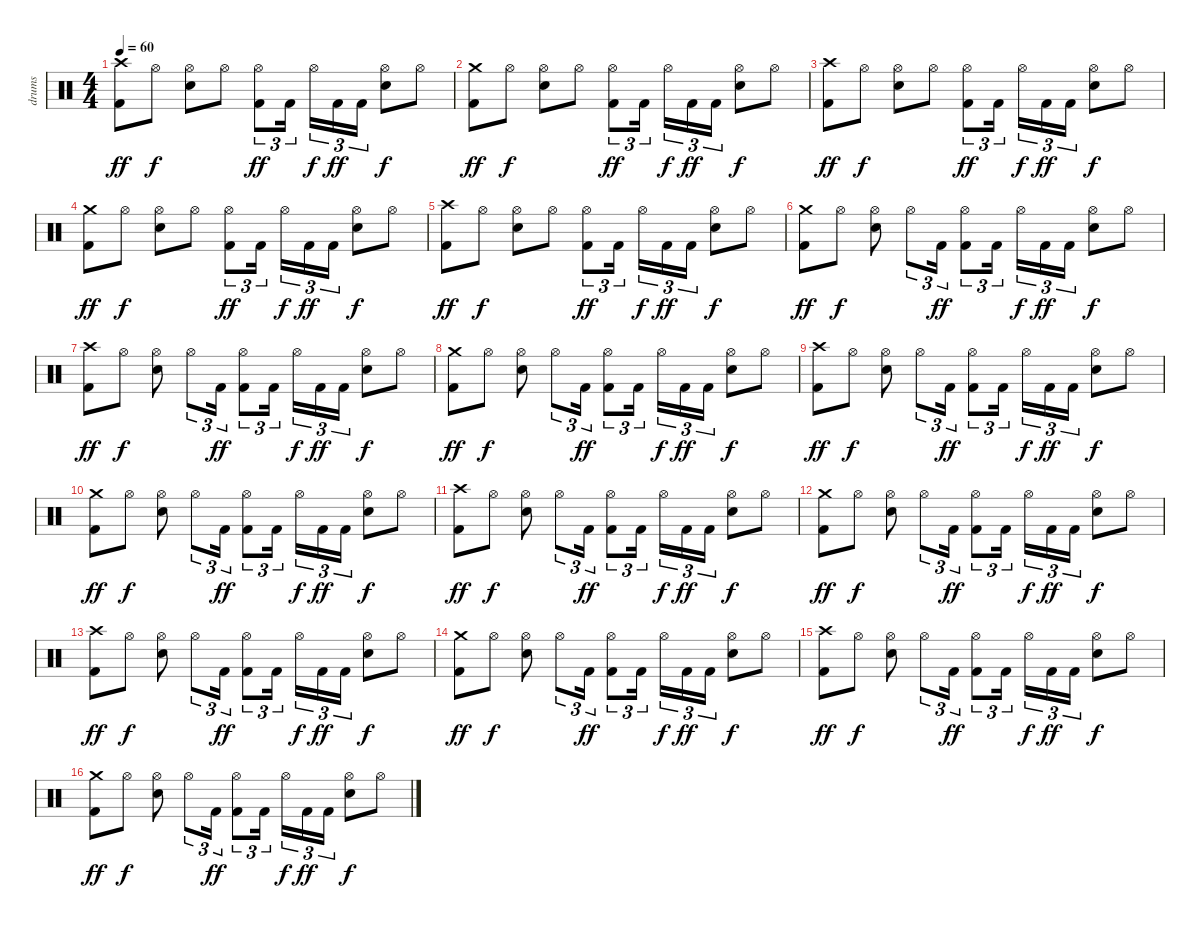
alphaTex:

\track ("drums" "drums") {instrument percussion}
\staff {score}
\articulation defaults
\ts (4 4)
\tempo 60
\clef neutral
\ks c
("Crash high (hit)" "Kick (hit) 2").8{dy ff} "Hi-Hat (open)".8{dy f} ("Hi-Hat (open)" "Electric Snare (hit)").8 "Hi-Hat (open)".8 ("Hi-Hat (open)" "Kick (hit) 2").8{tu (3 2) dy ff} "Kick (hit) 2".16{tu (3 2)} "Hi-Hat (open)".16{tu (3 2) dy f} "Kick (hit) 2".16{tu (3 2) dy ff} "Kick (hit) 2".16{tu (3 2)} ("Hi-Hat (open)" "Electric Snare (hit)").8{dy f} "Hi-Hat (open)".8 |
("Crash medium (hit)" "Kick (hit) 2").8{dy ff} "Hi-Hat (open)".8{dy f} ("Hi-Hat (open)" "Electric Snare (hit)").8 "Hi-Hat (open)".8 ("Hi-Hat (open)" "Kick (hit) 2").8{tu (3 2) dy ff} "Kick (hit) 2".16{tu (3 2)} "Hi-Hat (open)".16{tu (3 2) dy f} "Kick (hit) 2".16{tu (3 2) dy ff} "Kick (hit) 2".16{tu (3 2)} ("Hi-Hat (open)" "Electric Snare (hit)").8{dy f} "Hi-Hat (open)".8 |
("Crash high (hit)" "Kick (hit) 2").8{dy ff} "Hi-Hat (open)".8{dy f} ("Hi-Hat (open)" "Electric Snare (hit)").8 "Hi-Hat (open)".8 ("Hi-Hat (open)" "Kick (hit) 2").8{tu (3 2) dy ff} "Kick (hit) 2".16{tu (3 2)} "Hi-Hat (open)".16{tu (3 2) dy f} "Kick (hit) 2".16{tu (3 2) dy ff} "Kick (hit) 2".16{tu (3 2)} ("Hi-Hat (open)" "Electric Snare (hit)").8{dy f} "Hi-Hat (open)".8 |
("Crash medium (hit)" "Kick (hit) 2").8{dy ff} "Hi-Hat (open)".8{dy f} ("Hi-Hat (open)" "Electric Snare (hit)").8 "Hi-Hat (open)".8 ("Hi-Hat (open)" "Kick (hit) 2").8{tu (3 2) dy ff} "Kick (hit) 2".16{tu (3 2)} "Hi-Hat (open)".16{tu (3 2) dy f} "Kick (hit) 2".16{tu (3 2) dy ff} "Kick (hit) 2".16{tu (3 2)} ("Hi-Hat (open)" "Electric Snare (hit)").8{dy f} "Hi-Hat (open)".8 |
("Crash high (hit)" "Kick (hit) 2").8{dy ff} "Hi-Hat (open)".8{dy f} ("Hi-Hat (open)" "Electric Snare (hit)").8 "Hi-Hat (open)".8 ("Hi-Hat (open)" "Kick (hit) 2").8{tu (3 2) dy ff} "Kick (hit) 2".16{tu (3 2)} "Hi-Hat (open)".16{tu (3 2) dy f} "Kick (hit) 2".16{tu (3 2) dy ff} "Kick (hit) 2".16{tu (3 2)} ("Hi-Hat (open)" "Electric Snare (hit)").8{dy f} "Hi-Hat (open)".8 |
("Crash medium (hit)" "Kick (hit) 2").8{dy ff} "Hi-Hat (open)".8{dy f} ("Hi-Hat (open)" "Electric Snare (hit)").8 "Hi-Hat (open)".8{tu (3 2)} "Kick (hit) 2".16{tu (3 2) dy ff} ("Hi-Hat (open)" "Kick (hit) 2").8{tu (3 2)} "Kick (hit) 2".16{tu (3 2)} "Hi-Hat (open)".16{tu (3 2) dy f} "Kick (hit) 2".16{tu (3 2) dy ff} "Kick (hit) 2".16{tu (3 2)} ("Hi-Hat (open)" "Electric Snare (hit)").8{dy f} "Hi-Hat (open)".8 |
("Crash high (hit)" "Kick (hit) 2").8{dy ff} "Hi-Hat (open)".8{dy f} ("Hi-Hat (open)" "Electric Snare (hit)").8 "Hi-Hat (open)".8{tu (3 2)} "Kick (hit) 2".16{tu (3 2) dy ff} ("Hi-Hat (open)" "Kick (hit) 2").8{tu (3 2)} "Kick (hit) 2".16{tu (3 2)} "Hi-Hat (open)".16{tu (3 2) dy f} "Kick (hit) 2".16{tu (3 2) dy ff} "Kick (hit) 2".16{tu (3 2)} ("Hi-Hat (open)" "Electric Snare (hit)").8{dy f} "Hi-Hat (open)".8 |
("Crash medium (hit)" "Kick (hit) 2").8{dy ff} "Hi-Hat (open)".8{dy f} ("Hi-Hat (open)" "Electric Snare (hit)").8 "Hi-Hat (open)".8{tu (3 2)} "Kick (hit) 2".16{tu (3 2) dy ff} ("Hi-Hat (open)" "Kick (hit) 2").8{tu (3 2)} "Kick (hit) 2".16{tu (3 2)} "Hi-Hat (open)".16{tu (3 2) dy f} "Kick (hit) 2".16{tu (3 2) dy ff} "Kick (hit) 2".16{tu (3 2)} ("Hi-Hat (open)" "Electric Snare (hit)").8{dy f} "Hi-Hat (open)".8 |
("Crash high (hit)" "Kick (hit) 2").8{dy ff} "Hi-Hat (open)".8{dy f} ("Hi-Hat (open)" "Electric Snare (hit)").8 "Hi-Hat (open)".8{tu (3 2)} "Kick (hit) 2".16{tu (3 2) dy ff} ("Hi-Hat (open)" "Kick (hit) 2").8{tu (3 2)} "Kick (hit) 2".16{tu (3 2)} "Hi-Hat (open)".16{tu (3 2) dy f} "Kick (hit) 2".16{tu (3 2) dy ff} "Kick (hit) 2".16{tu (3 2)} ("Hi-Hat (open)" "Electric Snare (hit)").8{dy f} "Hi-Hat (open)".8 |
("Crash medium (hit)" "Kick (hit) 2").8{dy ff} "Hi-Hat (open)".8{dy f} ("Hi-Hat (open)" "Electric Snare (hit)").8 "Hi-Hat (open)".8{tu (3 2)} "Kick (hit) 2".16{tu (3 2) dy ff} ("Hi-Hat (open)" "Kick (hit) 2").8{tu (3 2)} "Kick (hit) 2".16{tu (3 2)} "Hi-Hat (open)".16{tu (3 2) dy f} "Kick (hit) 2".16{tu (3 2) dy ff} "Kick (hit) 2".16{tu (3 2)} ("Hi-Hat (open)" "Electric Snare (hit)").8{dy f} "Hi-Hat (open)".8 |
("Crash high (hit)" "Kick (hit) 2").8{dy ff} "Hi-Hat (open)".8{dy f} ("Hi-Hat (open)" "Electric Snare (hit)").8 "Hi-Hat (open)".8{tu (3 2)} "Kick (hit) 2".16{tu (3 2) dy ff} ("Hi-Hat (open)" "Kick (hit) 2").8{tu (3 2)} "Kick (hit) 2".16{tu (3 2)} "Hi-Hat (open)".16{tu (3 2) dy f} "Kick (hit) 2".16{tu (3 2) dy ff} "Kick (hit) 2".16{tu (3 2)} ("Hi-Hat (open)" "Electric Snare (hit)").8{dy f} "Hi-Hat (open)".8 |
("Crash medium (hit)" "Kick (hit) 2").8{dy ff} "Hi-Hat (open)".8{dy f} ("Hi-Hat (open)" "Electric Snare (hit)").8 "Hi-Hat (open)".8{tu (3 2)} "Kick (hit) 2".16{tu (3 2) dy ff} ("Hi-Hat (open)" "Kick (hit) 2").8{tu (3 2)} "Kick (hit) 2".16{tu (3 2)} "Hi-Hat (open)".16{tu (3 2) dy f} "Kick (hit) 2".16{tu (3 2) dy ff} "Kick (hit) 2".16{tu (3 2)} ("Hi-Hat (open)" "Electric Snare (hit)").8{dy f} "Hi-Hat (open)".8 |
("Crash high (hit)" "Kick (hit) 2").8{dy ff} "Hi-Hat (open)".8{dy f} ("Hi-Hat (open)" "Electric Snare (hit)").8 "Hi-Hat (open)".8{tu (3 2)} "Kick (hit) 2".16{tu (3 2) dy ff} ("Hi-Hat (open)" "Kick (hit) 2").8{tu (3 2)} "Kick (hit) 2".16{tu (3 2)} "Hi-Hat (open)".16{tu (3 2) dy f} "Kick (hit) 2".16{tu (3 2) dy ff} "Kick (hit) 2".16{tu (3 2)} ("Hi-Hat (open)" "Electric Snare (hit)").8{dy f} "Hi-Hat (open)".8 |
("Crash medium (hit)" "Kick (hit) 2").8{dy ff} "Hi-Hat (open)".8{dy f} ("Hi-Hat (open)" "Electric Snare (hit)").8 "Hi-Hat (open)".8{tu (3 2)} "Kick (hit) 2".16{tu (3 2) dy ff} ("Hi-Hat (open)" "Kick (hit) 2").8{tu (3 2)} "Kick (hit) 2".16{tu (3 2)} "Hi-Hat (open)".16{tu (3 2) dy f} "Kick (hit) 2".16{tu (3 2) dy ff} "Kick (hit) 2".16{tu (3 2)} ("Hi-Hat (open)" "Electric Snare (hit)").8{dy f} "Hi-Hat (open)".8 |
("Crash high (hit)" "Kick (hit) 2").8{dy ff} "Hi-Hat (open)".8{dy f} ("Hi-Hat (open)" "Electric Snare (hit)").8 "Hi-Hat (open)".8{tu (3 2)} "Kick (hit) 2".16{tu (3 2) dy ff} ("Hi-Hat (open)" "Kick (hit) 2").8{tu (3 2)} "Kick (hit) 2".16{tu (3 2)} "Hi-Hat (open)".16{tu (3 2) dy f} "Kick (hit) 2".16{tu (3 2) dy ff} "Kick (hit) 2".16{tu (3 2)} ("Hi-Hat (open)" "Electric Snare (hit)").8{dy f} "Hi-Hat (open)".8 |
("Crash medium (hit)" "Kick (hit) 2").8{dy ff} "Hi-Hat (open)".8{dy f} ("Hi-Hat (open)" "Electric Snare (hit)").8 "Hi-Hat (open)".8{tu (3 2)} "Kick (hit) 2".16{tu (3 2) dy ff} ("Hi-Hat (open)" "Kick (hit) 2").8{tu (3 2)} "Kick (hit) 2".16{tu (3 2)} "Hi-Hat (open)".16{tu (3 2) dy f} "Kick (hit) 2".16{tu (3 2) dy ff} "Kick (hit) 2".16{tu (3 2)} ("Hi-Hat (open)" "Electric Snare (hit)").8{dy f} "Hi-Hat (open)".8
